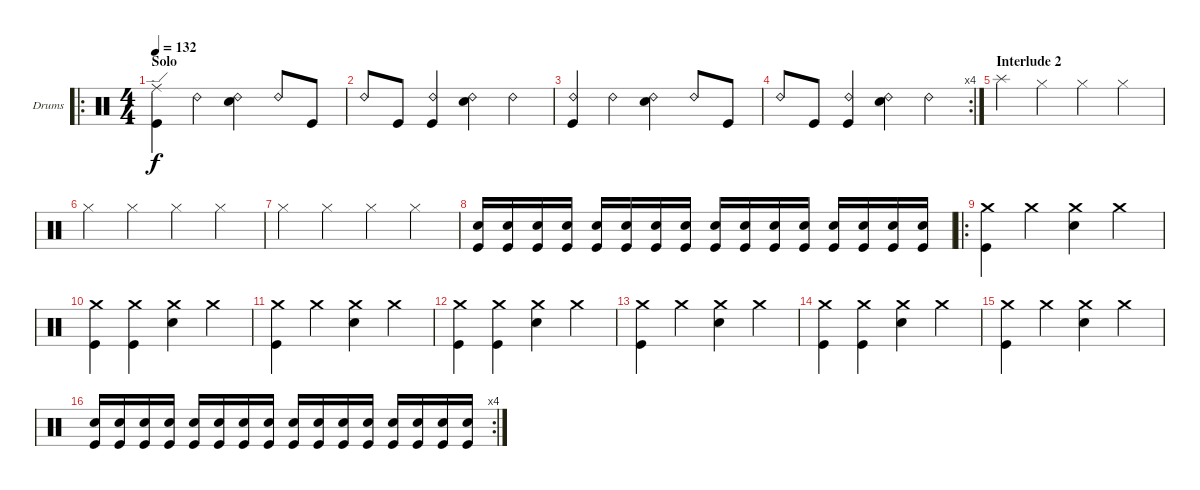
\bracketExtendMode groupsimilarinstruments
\firstSystemTrackNameOrientation horizontal
\otherSystemsTrackNameOrientation horizontal
\track ("Drumkit" "Drums") {instrument percussion}
\staff {score}
\articulation defaults
\ro
\ts (4 4)
\section ("" "Solo")
\tempo 132
\clef neutral
\ks c
("Ride (edge)" "Kick (hit)").4{dy f} "Ride (bell) 2".4 ("Ride (bell) 2" "Snare (hit) 2").4 "Ride (bell) 2".8 "Kick (hit)".8 |
"Ride (bell) 2".8 "Kick (hit)".8 ("Ride (bell) 2" "Kick (hit)").4 ("Ride (bell) 2" "Snare (hit) 2").4 "Ride (bell) 2".4 |
("Ride (bell) 2" "Kick (hit)").4 "Ride (bell) 2".4 ("Ride (bell) 2" "Snare (hit) 2").4 "Ride (bell) 2".8 "Kick (hit)".8 |
\rc 4 "Ride (bell) 2".8 "Kick (hit)".8
("Ride (bell) 2" "Kick (hit)").4 ("Ride (bell) 2" "Snare (hit) 2").4 "Ride (bell) 2".4 |
\section ("" "Interlude 2")
"Splash (hit)".4 "Hi-Hat (closed)".4 "Hi-Hat (closed)".4 "Hi-Hat (closed)".4 |
"Hi-Hat (closed)".4 "Hi-Hat (closed)".4 "Hi-Hat (closed)".4 "Hi-Hat (closed)".4 |
"Hi-Hat (closed)".4 "Hi-Hat (closed)".4 "Hi-Hat (closed)".4 "Hi-Hat (closed)".4 |
("Snare (hit) 2" "Kick (hit)").16 ("Snare (hit) 2" "Kick (hit)").16 ("Snare (hit) 2" "Kick (hit)").16 ("Snare (hit) 2" "Kick (hit)").16 ("Snare (hit) 2" "Kick (hit)").16 ("Snare (hit) 2" "Kick (hit)").16 ("Snare (hit) 2" "Kick (hit)").16 ("Snare (hit) 2" "Kick (hit)").16 ("Snare (hit) 2" "Kick (hit)").16 ("Snare (hit) 2" "Kick (hit)").16 ("Snare (hit) 2" "Kick (hit)").16 ("Snare (hit) 2" "Kick (hit)").16 ("Snare (hit) 2" "Kick (hit)").16 ("Snare (hit) 2" "Kick (hit)").16 ("Snare (hit) 2" "Kick (hit)").16 ("Snare (hit) 2" "Kick (hit)").16 |
\ro
("Kick (hit)" "Crash medium (hit)").4 "Crash medium (hit)".4 ("Snare (hit) 2" "Crash medium (hit)").4 "Crash medium (hit)".4 |
("Kick (hit)" "Crash medium (hit)").4 ("Kick (hit)" "Crash medium (hit)").4 ("Snare (hit) 2" "Crash medium (hit)").4 "Crash medium (hit)".4 |
("Kick (hit)" "Crash medium (hit)").4 "Crash medium (hit)".4 ("Snare (hit) 2" "Crash medium (hit)").4 "Crash medium (hit)".4 |
("Kick (hit)" "Crash medium (hit)").4 ("Kick (hit)" "Crash medium (hit)").4 ("Snare (hit) 2" "Crash medium (hit)").4 "Crash medium (hit)".4 |
("Kick (hit)" "Crash medium (hit)").4 "Crash medium (hit)".4 ("Snare (hit) 2" "Crash medium (hit)").4 "Crash medium (hit)".4 |
("Kick (hit)" "Crash medium (hit)").4 ("Kick (hit)" "Crash medium (hit)").4 ("Snare (hit) 2" "Crash medium (hit)").4 "Crash medium (hit)".4 |
("Kick (hit)" "Crash medium (hit)").4 "Crash medium (hit)".4 ("Snare (hit) 2" "Crash medium (hit)").4 "Crash medium (hit)".4 |
\rc 4
("Snare (hit) 2" "Kick (hit)").16 ("Snare (hit) 2" "Kick (hit)").16 ("Snare (hit) 2" "Kick (hit)").16 ("Snare (hit) 2" "Kick (hit)").16 ("Snare (hit) 2" "Kick (hit)").16 ("Snare (hit) 2" "Kick (hit)").16 ("Snare (hit) 2" "Kick (hit)").16 ("Snare (hit) 2" "Kick (hit)").16 ("Snare (hit) 2" "Kick (hit)").16 ("Snare (hit) 2" "Kick (hit)").16 ("Snare (hit) 2" "Kick (hit)").16 ("Snare (hit) 2" "Kick (hit)").16 ("Snare (hit) 2" "Kick (hit)").16 ("Snare (hit) 2" "Kick (hit)").16 ("Snare (hit) 2" "Kick (hit)").16 ("Snare (hit) 2" "Kick (hit)").16
